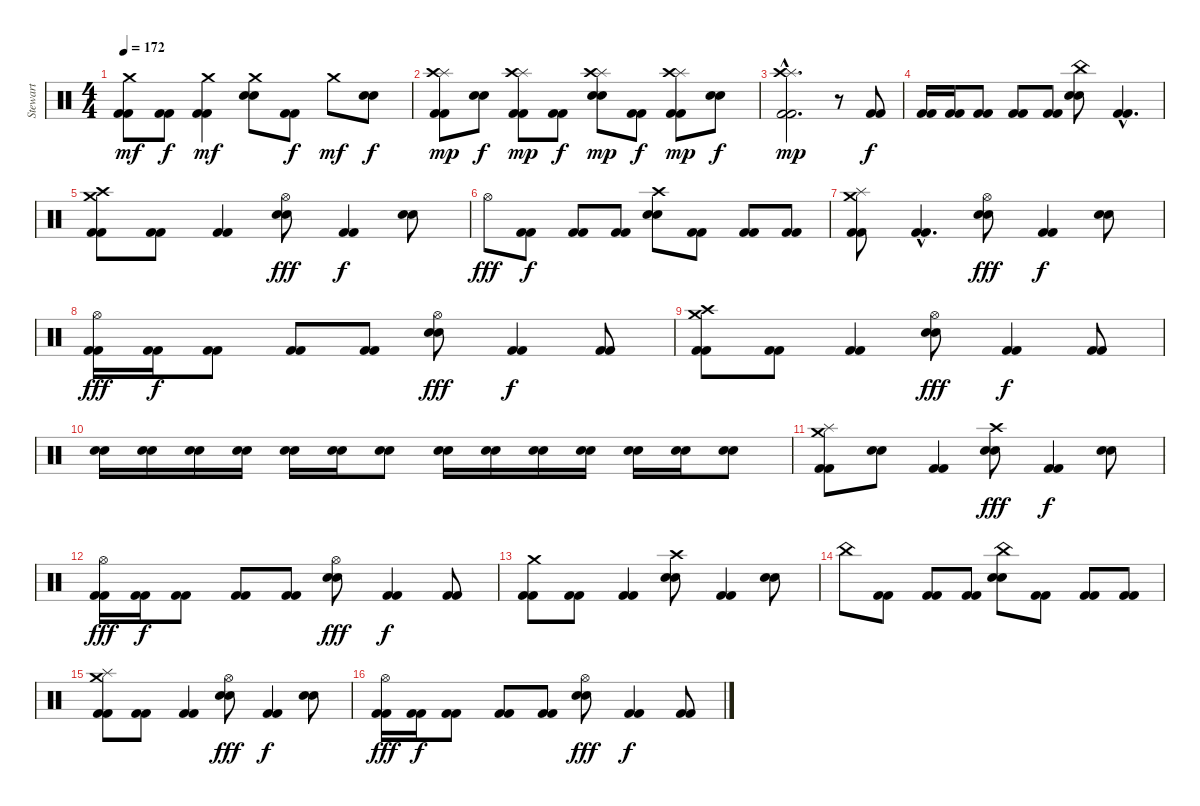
\track ("Stewart" "Stewart") {instrument percussion}
\staff {score}
\articulation defaults
\ts (4 4)
\tempo 172
\clef neutral
\ks c
("Crash medium (hit)" "Kick (hit) 2" "Kick (hit) 2").8{dy mf} ("Kick (hit) 2" "Kick (hit) 2").8{dy f} ("Crash medium (hit)" "Kick (hit) 2" "Kick (hit) 2").4{dy mf} ("Crash medium (hit)" "Electric Snare (hit)" "Electric Snare (hit)").8 ("Kick (hit) 2" "Kick (hit) 2").8{dy f} "Crash medium (hit)".8{dy mf} ("Electric Snare (hit)" "Electric Snare (hit)").8{dy f} |
("Splash (hit)" "Crash high (hit)" "Kick (hit) 2" "Kick (hit) 2").8{dy mp} ("Electric Snare (hit)" "Electric Snare (hit)").8{dy f} ("Splash (hit)" "Crash high (hit)" "Kick (hit) 2" "Kick (hit) 2").8{dy mp} ("Kick (hit) 2" "Kick (hit) 2").8{dy f} ("Splash (hit)" "Crash high (hit)" "Electric Snare (hit)" "Electric Snare (hit)").8{dy mp} ("Kick (hit) 2" "Kick (hit) 2").8{dy f} ("Splash (hit)" "Crash high (hit)" "Kick (hit) 2" "Kick (hit) 2").8{dy mp} ("Electric Snare (hit)" "Electric Snare (hit)").8{dy f} |
("Splash (hit)"{hac} "Crash high (hit)"{hac} "Kick (hit) 2"{hac} "Kick (hit) 2"{hac}).2{d dy mp} r.8 ("Kick (hit) 2" "Kick (hit) 2").8{dy f} |
("Kick (hit) 2" "Kick (hit) 2").16 ("Kick (hit) 2" "Kick (hit) 2").16 ("Kick (hit) 2" "Kick (hit) 2").8 ("Kick (hit) 2" "Kick (hit) 2").8 ("Kick (hit) 2" "Kick (hit) 2").8 ("China (hit)" "Electric Snare (hit)" "Electric Snare (hit)").8 ("Kick (hit) 2"{hac} "Kick (hit) 2"{hac}).4{d} |
("Crash medium (hit)" "Crash high (hit)" "Kick (hit) 2" "Kick (hit) 2").8 ("Kick (hit) 2" "Kick (hit) 2").8 ("Kick (hit) 2" "Kick (hit) 2").4 ("Hi-Hat (open)" "Electric Snare (hit)" "Electric Snare (hit)").8{dy fff} ("Kick (hit) 2" "Kick (hit) 2").4{dy f} ("Electric Snare (hit)" "Electric Snare (hit)").8 |
"Hi-Hat (open)".8{dy fff} ("Kick (hit) 2" "Kick (hit) 2").8{dy f} ("Kick (hit) 2" "Kick (hit) 2").8 ("Kick (hit) 2" "Kick (hit) 2").8 ("Crash high (hit)" "Electric Snare (hit)" "Electric Snare (hit)").8 ("Kick (hit) 2" "Kick (hit) 2").8 ("Kick (hit) 2" "Kick (hit) 2").8 ("Kick (hit) 2" "Kick (hit) 2").8 |
("Crash medium (hit)" "Splash (hit)" "Kick (hit) 2" "Kick (hit) 2").8 ("Kick (hit) 2"{hac} "Kick (hit) 2"{hac}).4{d} ("Hi-Hat (open)" "Electric Snare (hit)" "Electric Snare (hit)").8{dy fff} ("Kick (hit) 2" "Kick (hit) 2").4{dy f} ("Electric Snare (hit)" "Electric Snare (hit)").8 |
("Hi-Hat (open)" "Kick (hit) 2" "Kick (hit) 2").16{dy fff} ("Kick (hit) 2" "Kick (hit) 2").16{dy f} ("Kick (hit) 2" "Kick (hit) 2").8 ("Kick (hit) 2" "Kick (hit) 2").8 ("Kick (hit) 2" "Kick (hit) 2").8 ("Hi-Hat (open)" "Electric Snare (hit)" "Electric Snare (hit)").8{dy fff} ("Kick (hit) 2" "Kick (hit) 2").4{dy f} ("Kick (hit) 2" "Kick (hit) 2").8 |
("Crash medium (hit)" "Crash high (hit)" "Kick (hit) 2" "Kick (hit) 2").8 ("Kick (hit) 2" "Kick (hit) 2").8 ("Kick (hit) 2" "Kick (hit) 2").4 ("Hi-Hat (open)" "Electric Snare (hit)" "Electric Snare (hit)").8{dy fff} ("Kick (hit) 2" "Kick (hit) 2").4{dy f} ("Kick (hit) 2" "Kick (hit) 2").8 |
("Electric Snare (hit)" "Electric Snare (hit)").16 ("Electric Snare (hit)" "Electric Snare (hit)").16 ("Electric Snare (hit)" "Electric Snare (hit)").16 ("Electric Snare (hit)" "Electric Snare (hit)").16 ("Electric Snare (hit)" "Electric Snare (hit)").16 ("Electric Snare (hit)" "Electric Snare (hit)").16 ("Electric Snare (hit)" "Electric Snare (hit)").8 ("Electric Snare (hit)" "Electric Snare (hit)").16 ("Electric Snare (hit)" "Electric Snare (hit)").16 ("Electric Snare (hit)" "Electric Snare (hit)").16 ("Electric Snare (hit)" "Electric Snare (hit)").16 ("Electric Snare (hit)" "Electric Snare (hit)").16 ("Electric Snare (hit)" "Electric Snare (hit)").16 ("Electric Snare (hit)" "Electric Snare (hit)").8 |
("Crash medium (hit)" "Splash (hit)" "Kick (hit) 2" "Kick (hit) 2").8 ("Electric Snare (hit)" "Electric Snare (hit)").8 ("Kick (hit) 2" "Kick (hit) 2").4 ("Crash high (hit)" "Electric Snare (hit)" "Electric Snare (hit)").8{dy fff} ("Kick (hit) 2" "Kick (hit) 2").4{dy f} ("Electric Snare (hit)" "Electric Snare (hit)").8 |
("Hi-Hat (open)" "Kick (hit) 2" "Kick (hit) 2").16{dy fff} ("Kick (hit) 2" "Kick (hit) 2").16{dy f} ("Kick (hit) 2" "Kick (hit) 2").8 ("Kick (hit) 2" "Kick (hit) 2").8 ("Kick (hit) 2" "Kick (hit) 2").8 ("Hi-Hat (open)" "Electric Snare (hit)" "Electric Snare (hit)").8{dy fff} ("Kick (hit) 2" "Kick (hit) 2").4{dy f} ("Kick (hit) 2" "Kick (hit) 2").8 |
("Crash medium (hit)" "Kick (hit) 2" "Kick (hit) 2").8 ("Kick (hit) 2" "Kick (hit) 2").8 ("Kick (hit) 2" "Kick (hit) 2").4 ("Crash high (hit)" "Electric Snare (hit)" "Electric Snare (hit)").8 ("Kick (hit) 2" "Kick (hit) 2").4 ("Electric Snare (hit)" "Electric Snare (hit)").8 |
"China (hit)".8 ("Kick (hit) 2" "Kick (hit) 2").8 ("Kick (hit) 2" "Kick (hit) 2").8 ("Kick (hit) 2" "Kick (hit) 2").8 ("China (hit)" "Electric Snare (hit)" "Electric Snare (hit)").8 ("Kick (hit) 2" "Kick (hit) 2").8 ("Kick (hit) 2" "Kick (hit) 2").8 ("Kick (hit) 2" "Kick (hit) 2").8 |
("Crash medium (hit)" "Splash (hit)" "Kick (hit) 2" "Kick (hit) 2").8 ("Kick (hit) 2" "Kick (hit) 2").8 ("Kick (hit) 2" "Kick (hit) 2").4 ("Hi-Hat (open)" "Electric Snare (hit)" "Electric Snare (hit)").8{dy fff} ("Kick (hit) 2" "Kick (hit) 2").4{dy f} ("Electric Snare (hit)" "Electric Snare (hit)").8 |
("Hi-Hat (open)" "Kick (hit) 2" "Kick (hit) 2").16{dy fff} ("Kick (hit) 2" "Kick (hit) 2").16{dy f} ("Kick (hit) 2" "Kick (hit) 2").8 ("Kick (hit) 2" "Kick (hit) 2").8 ("Kick (hit) 2" "Kick (hit) 2").8 ("Hi-Hat (open)" "Electric Snare (hit)" "Electric Snare (hit)").8{dy fff} ("Kick (hit) 2" "Kick (hit) 2").4{dy f} ("Kick (hit) 2" "Kick (hit) 2").8
